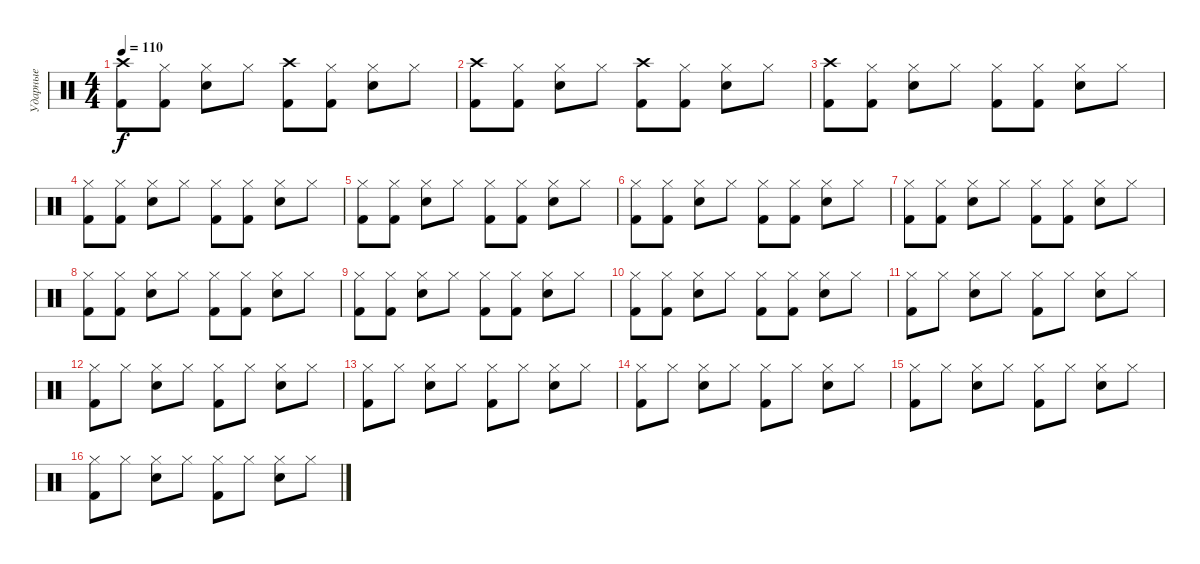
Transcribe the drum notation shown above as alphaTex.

\track ("Ударные" "Ударные") {instrument percussion}
\staff {score}
\articulation defaults
\ts (4 4)
\tempo 110
\clef neutral
\ks c
("Crash high (hit)" "Kick (hit) 2").8{dy f} ("Hi-Hat (closed)" "Kick (hit) 2").8 ("Hi-Hat (closed)" "Snare (hit) 2").8 "Hi-Hat (closed)".8 ("Crash high (hit)" "Kick (hit) 2").8 ("Hi-Hat (closed)" "Kick (hit) 2").8 ("Hi-Hat (closed)" "Snare (hit) 2").8 "Hi-Hat (closed)".8 |
("Crash high (hit)" "Kick (hit) 2").8 ("Hi-Hat (closed)" "Kick (hit) 2").8 ("Hi-Hat (closed)" "Snare (hit) 2").8 "Hi-Hat (closed)".8 ("Crash high (hit)" "Kick (hit) 2").8 ("Hi-Hat (closed)" "Kick (hit) 2").8 ("Hi-Hat (closed)" "Snare (hit) 2").8 "Hi-Hat (closed)".8 |
("Crash high (hit)" "Kick (hit) 2").8 ("Hi-Hat (closed)" "Kick (hit) 2").8 ("Hi-Hat (closed)" "Snare (hit) 2").8 "Hi-Hat (closed)".8 ("Hi-Hat (closed)" "Kick (hit) 2").8 ("Hi-Hat (closed)" "Kick (hit) 2").8 ("Hi-Hat (closed)" "Snare (hit) 2").8 "Hi-Hat (closed)".8 |
("Hi-Hat (closed)" "Kick (hit) 2").8 ("Hi-Hat (closed)" "Kick (hit) 2").8 ("Hi-Hat (closed)" "Snare (hit) 2").8 "Hi-Hat (closed)".8 ("Hi-Hat (closed)" "Kick (hit) 2").8 ("Hi-Hat (closed)" "Kick (hit) 2").8 ("Hi-Hat (closed)" "Snare (hit) 2").8 "Hi-Hat (closed)".8 |
("Hi-Hat (closed)" "Kick (hit) 2").8 ("Hi-Hat (closed)" "Kick (hit) 2").8 ("Hi-Hat (closed)" "Snare (hit) 2").8 "Hi-Hat (closed)".8 ("Hi-Hat (closed)" "Kick (hit) 2").8 ("Hi-Hat (closed)" "Kick (hit) 2").8 ("Hi-Hat (closed)" "Snare (hit) 2").8 "Hi-Hat (closed)".8 |
("Hi-Hat (closed)" "Kick (hit) 2").8 ("Hi-Hat (closed)" "Kick (hit) 2").8 ("Hi-Hat (closed)" "Snare (hit) 2").8 "Hi-Hat (closed)".8 ("Hi-Hat (closed)" "Kick (hit) 2").8 ("Hi-Hat (closed)" "Kick (hit) 2").8 ("Hi-Hat (closed)" "Snare (hit) 2").8 "Hi-Hat (closed)".8 |
("Hi-Hat (closed)" "Kick (hit) 2").8 ("Hi-Hat (closed)" "Kick (hit) 2").8 ("Hi-Hat (closed)" "Snare (hit) 2").8 "Hi-Hat (closed)".8 ("Hi-Hat (closed)" "Kick (hit) 2").8 ("Hi-Hat (closed)" "Kick (hit) 2").8 ("Hi-Hat (closed)" "Snare (hit) 2").8 "Hi-Hat (closed)".8 |
("Hi-Hat (closed)" "Kick (hit) 2").8 ("Hi-Hat (closed)" "Kick (hit) 2").8 ("Hi-Hat (closed)" "Snare (hit) 2").8 "Hi-Hat (closed)".8 ("Hi-Hat (closed)" "Kick (hit) 2").8 ("Hi-Hat (closed)" "Kick (hit) 2").8 ("Hi-Hat (closed)" "Snare (hit) 2").8 "Hi-Hat (closed)".8 |
("Hi-Hat (closed)" "Kick (hit) 2").8 ("Hi-Hat (closed)" "Kick (hit) 2").8 ("Hi-Hat (closed)" "Snare (hit) 2").8 "Hi-Hat (closed)".8 ("Hi-Hat (closed)" "Kick (hit) 2").8 ("Hi-Hat (closed)" "Kick (hit) 2").8 ("Hi-Hat (closed)" "Snare (hit) 2").8 "Hi-Hat (closed)".8 |
("Hi-Hat (closed)" "Kick (hit) 2").8 ("Hi-Hat (closed)" "Kick (hit) 2").8 ("Hi-Hat (closed)" "Snare (hit) 2").8 "Hi-Hat (closed)".8 ("Hi-Hat (closed)" "Kick (hit) 2").8 ("Hi-Hat (closed)" "Kick (hit) 2").8 ("Hi-Hat (closed)" "Snare (hit) 2").8 "Hi-Hat (closed)".8 |
("Hi-Hat (closed)" "Kick (hit) 2").8 "Hi-Hat (closed)".8 ("Hi-Hat (closed)" "Snare (hit) 2").8 "Hi-Hat (closed)".8 ("Hi-Hat (closed)" "Kick (hit) 2").8 "Hi-Hat (closed)".8 ("Hi-Hat (closed)" "Snare (hit) 2").8 "Hi-Hat (closed)".8 |
("Hi-Hat (closed)" "Kick (hit) 2").8 "Hi-Hat (closed)".8 ("Hi-Hat (closed)" "Snare (hit) 2").8 "Hi-Hat (closed)".8 ("Hi-Hat (closed)" "Kick (hit) 2").8 "Hi-Hat (closed)".8 ("Hi-Hat (closed)" "Snare (hit) 2").8 "Hi-Hat (closed)".8 |
("Hi-Hat (closed)" "Kick (hit) 2").8 "Hi-Hat (closed)".8 ("Hi-Hat (closed)" "Snare (hit) 2").8 "Hi-Hat (closed)".8 ("Hi-Hat (closed)" "Kick (hit) 2").8 "Hi-Hat (closed)".8 ("Hi-Hat (closed)" "Snare (hit) 2").8 "Hi-Hat (closed)".8 |
("Hi-Hat (closed)" "Kick (hit) 2").8 "Hi-Hat (closed)".8 ("Hi-Hat (closed)" "Snare (hit) 2").8 "Hi-Hat (closed)".8 ("Hi-Hat (closed)" "Kick (hit) 2").8 "Hi-Hat (closed)".8 ("Hi-Hat (closed)" "Snare (hit) 2").8 "Hi-Hat (closed)".8 |
("Hi-Hat (closed)" "Kick (hit) 2").8 "Hi-Hat (closed)".8 ("Hi-Hat (closed)" "Snare (hit) 2").8 "Hi-Hat (closed)".8 ("Hi-Hat (closed)" "Kick (hit) 2").8 "Hi-Hat (closed)".8 ("Hi-Hat (closed)" "Snare (hit) 2").8 "Hi-Hat (closed)".8 |
("Hi-Hat (closed)" "Kick (hit) 2").8 "Hi-Hat (closed)".8 ("Hi-Hat (closed)" "Snare (hit) 2").8 "Hi-Hat (closed)".8 ("Hi-Hat (closed)" "Kick (hit) 2").8 "Hi-Hat (closed)".8 ("Hi-Hat (closed)" "Snare (hit) 2").8 "Hi-Hat (closed)".8
